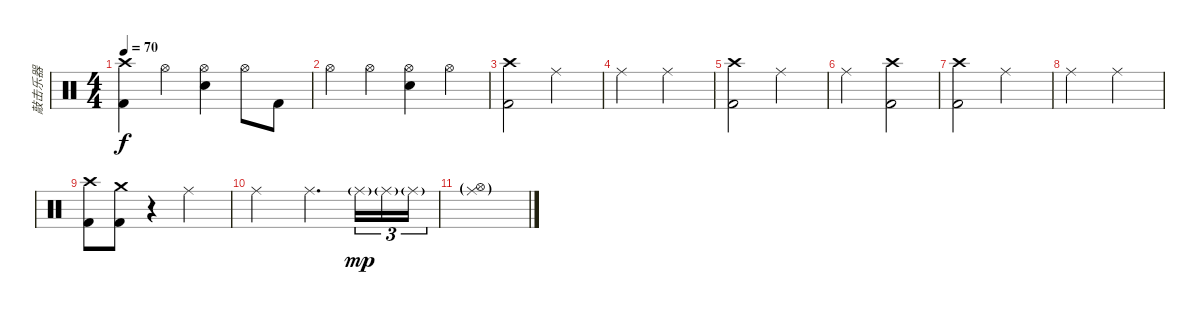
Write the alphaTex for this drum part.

\track ("敲击乐器" "敲击乐器") {instrument percussion}
\staff {score}
\articulation defaults
\ts (4 4)
\tempo 70
\clef neutral
\ks c
("Kick (hit) 2" "Crash high (hit)").4{dy f} "Hi-Hat (open)".4 ("Hi-Hat (open)" "Snare (hit) 2").4 "Hi-Hat (open)".8 "Kick (hit) 2".8 |
"Hi-Hat (open)".4 "Hi-Hat (open)".4 ("Hi-Hat (open)" "Snare (hit) 2").4 "Hi-Hat (open)".4 |
("Crash high (hit)" "Kick (hit) 2").2 "Ride (middle)".2 |
"Ride (middle)".2 "Ride (middle)".2 |
("Crash high (hit)" "Kick (hit) 2").2 "Ride (middle)".2 |
"Ride (middle)".2 ("Kick (hit) 2" "Crash high (hit)").2 |
("Crash high (hit)" "Kick (hit) 2").2 "Ride (middle)".2 |
"Ride (middle)".2 "Ride (middle)".2 |
("Kick (hit) 2" "Crash high (hit)").8 ("Kick (hit) 2" "Crash medium (hit)").8 r.4 "Ride (middle)".2 |
"Ride (middle)".2 "Ride (middle)".4{d} "Ride (middle)"{g}.16{tu (3 2) dy mp} "Ride (middle)"{g}.16{tu (3 2)} "Ride (middle)"{g}.16{tu (3 2)} |
("Hi-Hat (open)"{g} "Ride (middle)"{g}).1
